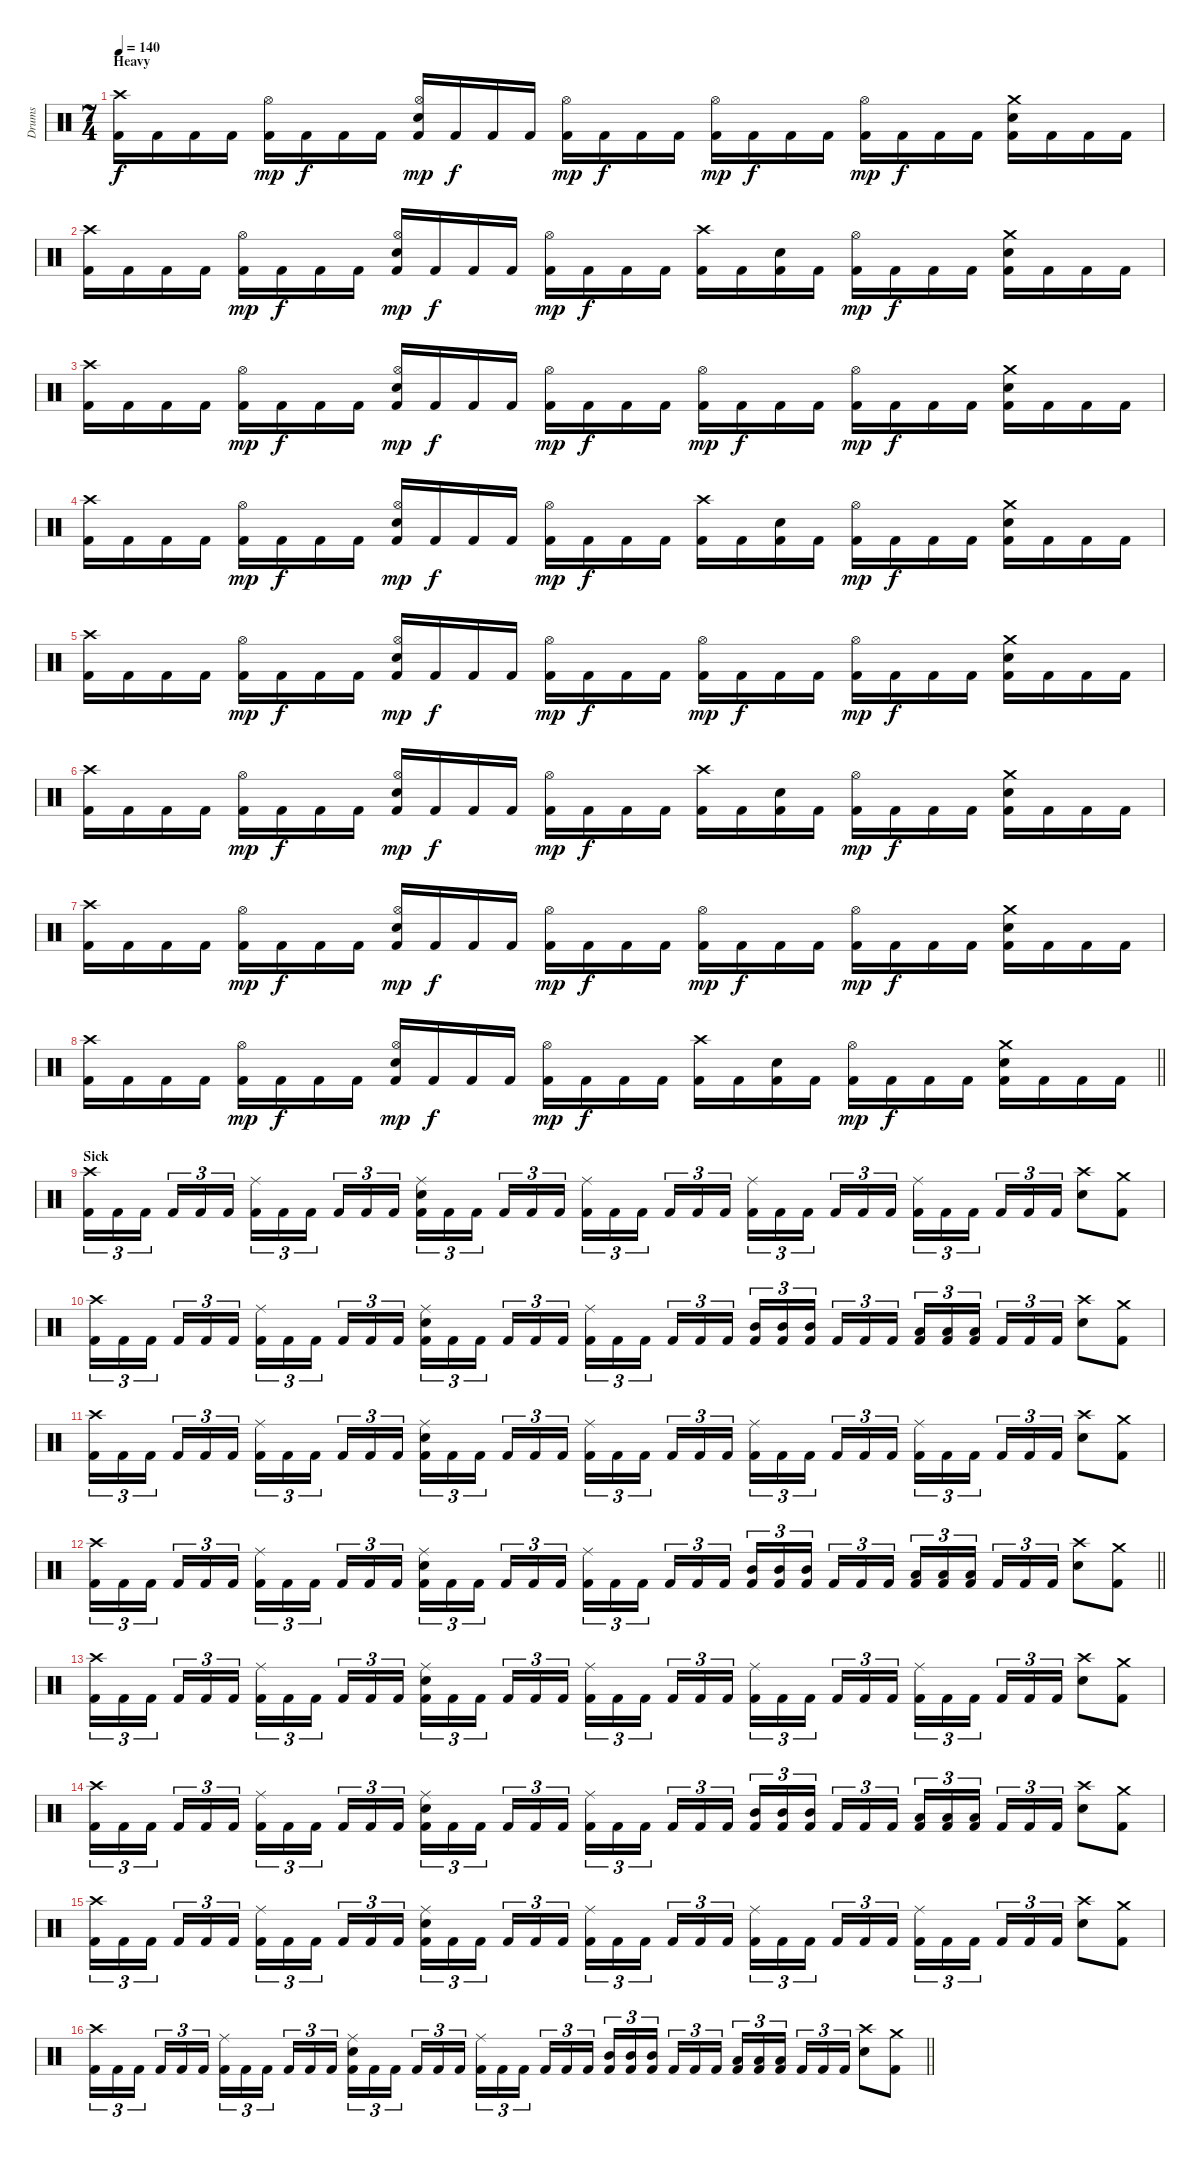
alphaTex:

\track ("Drums" "Drums") {instrument percussion}
\staff {score}
\articulation defaults
\ts (7 4)
\section ("" "Heavy")
\tempo 140
\clef neutral
\ks c
("Crash high (hit)" "Kick (hit) 2").16{dy f} "Kick (hit) 2".16 "Kick (hit) 2".16 "Kick (hit) 2".16 ("Hi-Hat (open)" "Kick (hit) 2").16{dy mp} "Kick (hit) 2".16{dy f} "Kick (hit) 2".16 "Kick (hit) 2".16 ("Hi-Hat (open)" "Snare (hit) 2" "Kick (hit) 2").16{dy mp} "Kick (hit) 2".16{dy f} "Kick (hit) 2".16 "Kick (hit) 2".16 ("Hi-Hat (open)" "Kick (hit) 2").16{dy mp} "Kick (hit) 2".16{dy f} "Kick (hit) 2".16 "Kick (hit) 2".16 ("Hi-Hat (open)" "Kick (hit) 2").16{dy mp} "Kick (hit) 2".16{dy f} "Kick (hit) 2".16 "Kick (hit) 2".16 ("Hi-Hat (open)" "Kick (hit) 2").16{dy mp} "Kick (hit) 2".16{dy f} "Kick (hit) 2".16 "Kick (hit) 2".16 ("Crash medium (hit)" "Snare (hit) 2" "Kick (hit) 2").16 "Kick (hit) 2".16 "Kick (hit) 2".16 "Kick (hit) 2".16 |
("Crash high (hit)" "Kick (hit) 2").16 "Kick (hit) 2".16 "Kick (hit) 2".16 "Kick (hit) 2".16 ("Hi-Hat (open)" "Kick (hit) 2").16{dy mp} "Kick (hit) 2".16{dy f} "Kick (hit) 2".16 "Kick (hit) 2".16 ("Hi-Hat (open)" "Snare (hit) 2" "Kick (hit) 2").16{dy mp} "Kick (hit) 2".16{dy f} "Kick (hit) 2".16 "Kick (hit) 2".16 ("Hi-Hat (open)" "Kick (hit) 2").16{dy mp} "Kick (hit) 2".16{dy f} "Kick (hit) 2".16 "Kick (hit) 2".16 ("Crash high (hit)" "Kick (hit) 2").16 "Kick (hit) 2".16 ("Snare (hit) 2" "Kick (hit) 2").16 "Kick (hit) 2".16 ("Hi-Hat (open)" "Kick (hit) 2").16{dy mp} "Kick (hit) 2".16{dy f} "Kick (hit) 2".16 "Kick (hit) 2".16 ("Crash medium (hit)" "Snare (hit) 2" "Kick (hit) 2").16 "Kick (hit) 2".16 "Kick (hit) 2".16 "Kick (hit) 2".16 |
("Crash high (hit)" "Kick (hit) 2").16 "Kick (hit) 2".16 "Kick (hit) 2".16 "Kick (hit) 2".16 ("Hi-Hat (open)" "Kick (hit) 2").16{dy mp} "Kick (hit) 2".16{dy f} "Kick (hit) 2".16 "Kick (hit) 2".16 ("Hi-Hat (open)" "Snare (hit) 2" "Kick (hit) 2").16{dy mp} "Kick (hit) 2".16{dy f} "Kick (hit) 2".16 "Kick (hit) 2".16 ("Hi-Hat (open)" "Kick (hit) 2").16{dy mp} "Kick (hit) 2".16{dy f} "Kick (hit) 2".16 "Kick (hit) 2".16 ("Hi-Hat (open)" "Kick (hit) 2").16{dy mp} "Kick (hit) 2".16{dy f} "Kick (hit) 2".16 "Kick (hit) 2".16 ("Hi-Hat (open)" "Kick (hit) 2").16{dy mp} "Kick (hit) 2".16{dy f} "Kick (hit) 2".16 "Kick (hit) 2".16 ("Crash medium (hit)" "Snare (hit) 2" "Kick (hit) 2").16 "Kick (hit) 2".16 "Kick (hit) 2".16 "Kick (hit) 2".16 |
("Crash high (hit)" "Kick (hit) 2").16 "Kick (hit) 2".16 "Kick (hit) 2".16 "Kick (hit) 2".16 ("Hi-Hat (open)" "Kick (hit) 2").16{dy mp} "Kick (hit) 2".16{dy f} "Kick (hit) 2".16 "Kick (hit) 2".16 ("Hi-Hat (open)" "Snare (hit) 2" "Kick (hit) 2").16{dy mp} "Kick (hit) 2".16{dy f} "Kick (hit) 2".16 "Kick (hit) 2".16 ("Hi-Hat (open)" "Kick (hit) 2").16{dy mp} "Kick (hit) 2".16{dy f} "Kick (hit) 2".16 "Kick (hit) 2".16 ("Crash high (hit)" "Kick (hit) 2").16 "Kick (hit) 2".16 ("Snare (hit) 2" "Kick (hit) 2").16 "Kick (hit) 2".16 ("Hi-Hat (open)" "Kick (hit) 2").16{dy mp} "Kick (hit) 2".16{dy f} "Kick (hit) 2".16 "Kick (hit) 2".16 ("Crash medium (hit)" "Snare (hit) 2" "Kick (hit) 2").16 "Kick (hit) 2".16 "Kick (hit) 2".16 "Kick (hit) 2".16 |
("Crash high (hit)" "Kick (hit) 2").16 "Kick (hit) 2".16 "Kick (hit) 2".16 "Kick (hit) 2".16 ("Hi-Hat (open)" "Kick (hit) 2").16{dy mp} "Kick (hit) 2".16{dy f} "Kick (hit) 2".16 "Kick (hit) 2".16 ("Hi-Hat (open)" "Snare (hit) 2" "Kick (hit) 2").16{dy mp} "Kick (hit) 2".16{dy f} "Kick (hit) 2".16 "Kick (hit) 2".16 ("Hi-Hat (open)" "Kick (hit) 2").16{dy mp} "Kick (hit) 2".16{dy f} "Kick (hit) 2".16 "Kick (hit) 2".16 ("Hi-Hat (open)" "Kick (hit) 2").16{dy mp} "Kick (hit) 2".16{dy f} "Kick (hit) 2".16 "Kick (hit) 2".16 ("Hi-Hat (open)" "Kick (hit) 2").16{dy mp} "Kick (hit) 2".16{dy f} "Kick (hit) 2".16 "Kick (hit) 2".16 ("Crash medium (hit)" "Snare (hit) 2" "Kick (hit) 2").16 "Kick (hit) 2".16 "Kick (hit) 2".16 "Kick (hit) 2".16 |
("Crash high (hit)" "Kick (hit) 2").16 "Kick (hit) 2".16 "Kick (hit) 2".16 "Kick (hit) 2".16 ("Hi-Hat (open)" "Kick (hit) 2").16{dy mp} "Kick (hit) 2".16{dy f} "Kick (hit) 2".16 "Kick (hit) 2".16 ("Hi-Hat (open)" "Snare (hit) 2" "Kick (hit) 2").16{dy mp} "Kick (hit) 2".16{dy f} "Kick (hit) 2".16 "Kick (hit) 2".16 ("Hi-Hat (open)" "Kick (hit) 2").16{dy mp} "Kick (hit) 2".16{dy f} "Kick (hit) 2".16 "Kick (hit) 2".16 ("Crash high (hit)" "Kick (hit) 2").16 "Kick (hit) 2".16 ("Snare (hit) 2" "Kick (hit) 2").16 "Kick (hit) 2".16 ("Hi-Hat (open)" "Kick (hit) 2").16{dy mp} "Kick (hit) 2".16{dy f} "Kick (hit) 2".16 "Kick (hit) 2".16 ("Crash medium (hit)" "Snare (hit) 2" "Kick (hit) 2").16 "Kick (hit) 2".16 "Kick (hit) 2".16 "Kick (hit) 2".16 |
("Crash high (hit)" "Kick (hit) 2").16 "Kick (hit) 2".16 "Kick (hit) 2".16 "Kick (hit) 2".16 ("Hi-Hat (open)" "Kick (hit) 2").16{dy mp} "Kick (hit) 2".16{dy f} "Kick (hit) 2".16 "Kick (hit) 2".16 ("Hi-Hat (open)" "Snare (hit) 2" "Kick (hit) 2").16{dy mp} "Kick (hit) 2".16{dy f} "Kick (hit) 2".16 "Kick (hit) 2".16 ("Hi-Hat (open)" "Kick (hit) 2").16{dy mp} "Kick (hit) 2".16{dy f} "Kick (hit) 2".16 "Kick (hit) 2".16 ("Hi-Hat (open)" "Kick (hit) 2").16{dy mp} "Kick (hit) 2".16{dy f} "Kick (hit) 2".16 "Kick (hit) 2".16 ("Hi-Hat (open)" "Kick (hit) 2").16{dy mp} "Kick (hit) 2".16{dy f} "Kick (hit) 2".16 "Kick (hit) 2".16 ("Crash medium (hit)" "Snare (hit) 2" "Kick (hit) 2").16 "Kick (hit) 2".16 "Kick (hit) 2".16 "Kick (hit) 2".16 |
\barLineRight lightlight
("Crash high (hit)" "Kick (hit) 2").16 "Kick (hit) 2".16 "Kick (hit) 2".16 "Kick (hit) 2".16 ("Hi-Hat (open)" "Kick (hit) 2").16{dy mp} "Kick (hit) 2".16{dy f} "Kick (hit) 2".16 "Kick (hit) 2".16 ("Hi-Hat (open)" "Snare (hit) 2" "Kick (hit) 2").16{dy mp} "Kick (hit) 2".16{dy f} "Kick (hit) 2".16 "Kick (hit) 2".16 ("Hi-Hat (open)" "Kick (hit) 2").16{dy mp} "Kick (hit) 2".16{dy f} "Kick (hit) 2".16 "Kick (hit) 2".16 ("Crash high (hit)" "Kick (hit) 2").16 "Kick (hit) 2".16 ("Snare (hit) 2" "Kick (hit) 2").16 "Kick (hit) 2".16 ("Hi-Hat (open)" "Kick (hit) 2").16{dy mp} "Kick (hit) 2".16{dy f} "Kick (hit) 2".16 "Kick (hit) 2".16 ("Crash medium (hit)" "Snare (hit) 2" "Kick (hit) 2").16 "Kick (hit) 2".16 "Kick (hit) 2".16 "Kick (hit) 2".16 |
\section ("" "Sick")
("Crash high (hit)" "Kick (hit) 2").16{tu (3 2)} "Kick (hit) 2".16{tu (3 2)} "Kick (hit) 2".16{tu (3 2) beam splitsecondary} "Kick (hit) 2".16{tu (3 2)} "Kick (hit) 2".16{tu (3 2)} "Kick (hit) 2".16{tu (3 2)} ("Ride (middle)" "Kick (hit) 2").16{tu (3 2)} "Kick (hit) 2".16{tu (3 2)} "Kick (hit) 2".16{tu (3 2) beam splitsecondary} "Kick (hit) 2".16{tu (3 2)} "Kick (hit) 2".16{tu (3 2)} "Kick (hit) 2".16{tu (3 2)} ("Ride (middle)" "Snare (hit) 2" "Kick (hit) 2").16{tu (3 2)} "Kick (hit) 2".16{tu (3 2)} "Kick (hit) 2".16{tu (3 2) beam splitsecondary} "Kick (hit) 2".16{tu (3 2)} "Kick (hit) 2".16{tu (3 2)} "Kick (hit) 2".16{tu (3 2)} ("Ride (middle)" "Kick (hit) 2").16{tu (3 2)} "Kick (hit) 2".16{tu (3 2)} "Kick (hit) 2".16{tu (3 2) beam splitsecondary} "Kick (hit) 2".16{tu (3 2)} "Kick (hit) 2".16{tu (3 2)} "Kick (hit) 2".16{tu (3 2)} ("Ride (middle)" "Kick (hit) 2").16{tu (3 2)} "Kick (hit) 2".16{tu (3 2)} "Kick (hit) 2".16{tu (3 2) beam splitsecondary} "Kick (hit) 2".16{tu (3 2)} "Kick (hit) 2".16{tu (3 2)} "Kick (hit) 2".16{tu (3 2)} ("Ride (middle)" "Kick (hit) 2").16{tu (3 2)} "Kick (hit) 2".16{tu (3 2)} "Kick (hit) 2".16{tu (3 2) beam splitsecondary} "Kick (hit) 2".16{tu (3 2)} "Kick (hit) 2".16{tu (3 2)} "Kick (hit) 2".16{tu (3 2)} ("Crash high (hit)" "Snare (hit) 2").8 ("Crash medium (hit)" "Kick (hit) 2").8 |
("Crash high (hit)" "Kick (hit) 2").16{tu (3 2)} "Kick (hit) 2".16{tu (3 2)} "Kick (hit) 2".16{tu (3 2) beam splitsecondary} "Kick (hit) 2".16{tu (3 2)} "Kick (hit) 2".16{tu (3 2)} "Kick (hit) 2".16{tu (3 2)} ("Ride (middle)" "Kick (hit) 2").16{tu (3 2)} "Kick (hit) 2".16{tu (3 2)} "Kick (hit) 2".16{tu (3 2) beam splitsecondary} "Kick (hit) 2".16{tu (3 2)} "Kick (hit) 2".16{tu (3 2)} "Kick (hit) 2".16{tu (3 2)} ("Ride (middle)" "Snare (hit) 2" "Kick (hit) 2").16{tu (3 2)} "Kick (hit) 2".16{tu (3 2)} "Kick (hit) 2".16{tu (3 2) beam splitsecondary} "Kick (hit) 2".16{tu (3 2)} "Kick (hit) 2".16{tu (3 2)} "Kick (hit) 2".16{tu (3 2)} ("Ride (middle)" "Kick (hit) 2").16{tu (3 2)} "Kick (hit) 2".16{tu (3 2)} "Kick (hit) 2".16{tu (3 2) beam splitsecondary} "Kick (hit) 2".16{tu (3 2)} "Kick (hit) 2".16{tu (3 2)} "Kick (hit) 2".16{tu (3 2)} ("Mid Tom (hit)" "Kick (hit) 2").16{tu (3 2)} ("Mid Tom (hit)" "Kick (hit) 2").16{tu (3 2)} ("Mid Tom (hit)" "Kick (hit) 2").16{tu (3 2) beam splitsecondary} "Kick (hit) 2".16{tu (3 2)} "Kick (hit) 2".16{tu (3 2)} "Kick (hit) 2".16{tu (3 2)} ("Low Tom (hit)" "Kick (hit) 2").16{tu (3 2)} ("Low Tom (hit)" "Kick (hit) 2").16{tu (3 2)} ("Low Tom (hit)" "Kick (hit) 2").16{tu (3 2) beam splitsecondary} "Kick (hit) 2".16{tu (3 2)} "Kick (hit) 2".16{tu (3 2)} "Kick (hit) 2".16{tu (3 2)} ("Crash high (hit)" "Snare (hit) 2").8 ("Crash medium (hit)" "Kick (hit) 2").8 |
("Crash high (hit)" "Kick (hit) 2").16{tu (3 2)} "Kick (hit) 2".16{tu (3 2)} "Kick (hit) 2".16{tu (3 2) beam splitsecondary} "Kick (hit) 2".16{tu (3 2)} "Kick (hit) 2".16{tu (3 2)} "Kick (hit) 2".16{tu (3 2)} ("Ride (middle)" "Kick (hit) 2").16{tu (3 2)} "Kick (hit) 2".16{tu (3 2)} "Kick (hit) 2".16{tu (3 2) beam splitsecondary} "Kick (hit) 2".16{tu (3 2)} "Kick (hit) 2".16{tu (3 2)} "Kick (hit) 2".16{tu (3 2)} ("Ride (middle)" "Snare (hit) 2" "Kick (hit) 2").16{tu (3 2)} "Kick (hit) 2".16{tu (3 2)} "Kick (hit) 2".16{tu (3 2) beam splitsecondary} "Kick (hit) 2".16{tu (3 2)} "Kick (hit) 2".16{tu (3 2)} "Kick (hit) 2".16{tu (3 2)} ("Ride (middle)" "Kick (hit) 2").16{tu (3 2)} "Kick (hit) 2".16{tu (3 2)} "Kick (hit) 2".16{tu (3 2) beam splitsecondary} "Kick (hit) 2".16{tu (3 2)} "Kick (hit) 2".16{tu (3 2)} "Kick (hit) 2".16{tu (3 2)} ("Ride (middle)" "Kick (hit) 2").16{tu (3 2)} "Kick (hit) 2".16{tu (3 2)} "Kick (hit) 2".16{tu (3 2) beam splitsecondary} "Kick (hit) 2".16{tu (3 2)} "Kick (hit) 2".16{tu (3 2)} "Kick (hit) 2".16{tu (3 2)} ("Ride (middle)" "Kick (hit) 2").16{tu (3 2)} "Kick (hit) 2".16{tu (3 2)} "Kick (hit) 2".16{tu (3 2) beam splitsecondary} "Kick (hit) 2".16{tu (3 2)} "Kick (hit) 2".16{tu (3 2)} "Kick (hit) 2".16{tu (3 2)} ("Crash high (hit)" "Snare (hit) 2").8 ("Crash medium (hit)" "Kick (hit) 2").8 |
\barLineRight lightlight
("Crash high (hit)" "Kick (hit) 2").16{tu (3 2)} "Kick (hit) 2".16{tu (3 2)} "Kick (hit) 2".16{tu (3 2) beam splitsecondary} "Kick (hit) 2".16{tu (3 2)} "Kick (hit) 2".16{tu (3 2)} "Kick (hit) 2".16{tu (3 2)} ("Ride (middle)" "Kick (hit) 2").16{tu (3 2)} "Kick (hit) 2".16{tu (3 2)} "Kick (hit) 2".16{tu (3 2) beam splitsecondary} "Kick (hit) 2".16{tu (3 2)} "Kick (hit) 2".16{tu (3 2)} "Kick (hit) 2".16{tu (3 2)} ("Ride (middle)" "Snare (hit) 2" "Kick (hit) 2").16{tu (3 2)} "Kick (hit) 2".16{tu (3 2)} "Kick (hit) 2".16{tu (3 2) beam splitsecondary} "Kick (hit) 2".16{tu (3 2)} "Kick (hit) 2".16{tu (3 2)} "Kick (hit) 2".16{tu (3 2)} ("Ride (middle)" "Kick (hit) 2").16{tu (3 2)} "Kick (hit) 2".16{tu (3 2)} "Kick (hit) 2".16{tu (3 2) beam splitsecondary} "Kick (hit) 2".16{tu (3 2)} "Kick (hit) 2".16{tu (3 2)} "Kick (hit) 2".16{tu (3 2)} ("Mid Tom (hit)" "Kick (hit) 2").16{tu (3 2)} ("Mid Tom (hit)" "Kick (hit) 2").16{tu (3 2)} ("Mid Tom (hit)" "Kick (hit) 2").16{tu (3 2) beam splitsecondary} "Kick (hit) 2".16{tu (3 2)} "Kick (hit) 2".16{tu (3 2)} "Kick (hit) 2".16{tu (3 2)} ("Low Tom (hit)" "Kick (hit) 2").16{tu (3 2)} ("Low Tom (hit)" "Kick (hit) 2").16{tu (3 2)} ("Low Tom (hit)" "Kick (hit) 2").16{tu (3 2) beam splitsecondary} "Kick (hit) 2".16{tu (3 2)} "Kick (hit) 2".16{tu (3 2)} "Kick (hit) 2".16{tu (3 2)} ("Crash high (hit)" "Snare (hit) 2").8 ("Crash medium (hit)" "Kick (hit) 2").8 |
("Crash high (hit)" "Kick (hit) 2").16{tu (3 2)} "Kick (hit) 2".16{tu (3 2)} "Kick (hit) 2".16{tu (3 2) beam splitsecondary} "Kick (hit) 2".16{tu (3 2)} "Kick (hit) 2".16{tu (3 2)} "Kick (hit) 2".16{tu (3 2)} ("Ride (middle)" "Kick (hit) 2").16{tu (3 2)} "Kick (hit) 2".16{tu (3 2)} "Kick (hit) 2".16{tu (3 2) beam splitsecondary} "Kick (hit) 2".16{tu (3 2)} "Kick (hit) 2".16{tu (3 2)} "Kick (hit) 2".16{tu (3 2)} ("Ride (middle)" "Snare (hit) 2" "Kick (hit) 2").16{tu (3 2)} "Kick (hit) 2".16{tu (3 2)} "Kick (hit) 2".16{tu (3 2) beam splitsecondary} "Kick (hit) 2".16{tu (3 2)} "Kick (hit) 2".16{tu (3 2)} "Kick (hit) 2".16{tu (3 2)} ("Ride (middle)" "Kick (hit) 2").16{tu (3 2)} "Kick (hit) 2".16{tu (3 2)} "Kick (hit) 2".16{tu (3 2) beam splitsecondary} "Kick (hit) 2".16{tu (3 2)} "Kick (hit) 2".16{tu (3 2)} "Kick (hit) 2".16{tu (3 2)} ("Ride (middle)" "Kick (hit) 2").16{tu (3 2)} "Kick (hit) 2".16{tu (3 2)} "Kick (hit) 2".16{tu (3 2) beam splitsecondary} "Kick (hit) 2".16{tu (3 2)} "Kick (hit) 2".16{tu (3 2)} "Kick (hit) 2".16{tu (3 2)} ("Ride (middle)" "Kick (hit) 2").16{tu (3 2)} "Kick (hit) 2".16{tu (3 2)} "Kick (hit) 2".16{tu (3 2) beam splitsecondary} "Kick (hit) 2".16{tu (3 2)} "Kick (hit) 2".16{tu (3 2)} "Kick (hit) 2".16{tu (3 2)} ("Crash high (hit)" "Snare (hit) 2").8 ("Crash medium (hit)" "Kick (hit) 2").8 |
("Crash high (hit)" "Kick (hit) 2").16{tu (3 2)} "Kick (hit) 2".16{tu (3 2)} "Kick (hit) 2".16{tu (3 2) beam splitsecondary} "Kick (hit) 2".16{tu (3 2)} "Kick (hit) 2".16{tu (3 2)} "Kick (hit) 2".16{tu (3 2)} ("Ride (middle)" "Kick (hit) 2").16{tu (3 2)} "Kick (hit) 2".16{tu (3 2)} "Kick (hit) 2".16{tu (3 2) beam splitsecondary} "Kick (hit) 2".16{tu (3 2)} "Kick (hit) 2".16{tu (3 2)} "Kick (hit) 2".16{tu (3 2)} ("Ride (middle)" "Snare (hit) 2" "Kick (hit) 2").16{tu (3 2)} "Kick (hit) 2".16{tu (3 2)} "Kick (hit) 2".16{tu (3 2) beam splitsecondary} "Kick (hit) 2".16{tu (3 2)} "Kick (hit) 2".16{tu (3 2)} "Kick (hit) 2".16{tu (3 2)} ("Ride (middle)" "Kick (hit) 2").16{tu (3 2)} "Kick (hit) 2".16{tu (3 2)} "Kick (hit) 2".16{tu (3 2) beam splitsecondary} "Kick (hit) 2".16{tu (3 2)} "Kick (hit) 2".16{tu (3 2)} "Kick (hit) 2".16{tu (3 2)} ("Mid Tom (hit)" "Kick (hit) 2").16{tu (3 2)} ("Mid Tom (hit)" "Kick (hit) 2").16{tu (3 2)} ("Mid Tom (hit)" "Kick (hit) 2").16{tu (3 2) beam splitsecondary} "Kick (hit) 2".16{tu (3 2)} "Kick (hit) 2".16{tu (3 2)} "Kick (hit) 2".16{tu (3 2)} ("Low Tom (hit)" "Kick (hit) 2").16{tu (3 2)} ("Low Tom (hit)" "Kick (hit) 2").16{tu (3 2)} ("Low Tom (hit)" "Kick (hit) 2").16{tu (3 2) beam splitsecondary} "Kick (hit) 2".16{tu (3 2)} "Kick (hit) 2".16{tu (3 2)} "Kick (hit) 2".16{tu (3 2)} ("Crash high (hit)" "Snare (hit) 2").8 ("Crash medium (hit)" "Kick (hit) 2").8 |
("Crash high (hit)" "Kick (hit) 2").16{tu (3 2)} "Kick (hit) 2".16{tu (3 2)} "Kick (hit) 2".16{tu (3 2) beam splitsecondary} "Kick (hit) 2".16{tu (3 2)} "Kick (hit) 2".16{tu (3 2)} "Kick (hit) 2".16{tu (3 2)} ("Ride (middle)" "Kick (hit) 2").16{tu (3 2)} "Kick (hit) 2".16{tu (3 2)} "Kick (hit) 2".16{tu (3 2) beam splitsecondary} "Kick (hit) 2".16{tu (3 2)} "Kick (hit) 2".16{tu (3 2)} "Kick (hit) 2".16{tu (3 2)} ("Ride (middle)" "Snare (hit) 2" "Kick (hit) 2").16{tu (3 2)} "Kick (hit) 2".16{tu (3 2)} "Kick (hit) 2".16{tu (3 2) beam splitsecondary} "Kick (hit) 2".16{tu (3 2)} "Kick (hit) 2".16{tu (3 2)} "Kick (hit) 2".16{tu (3 2)} ("Ride (middle)" "Kick (hit) 2").16{tu (3 2)} "Kick (hit) 2".16{tu (3 2)} "Kick (hit) 2".16{tu (3 2) beam splitsecondary} "Kick (hit) 2".16{tu (3 2)} "Kick (hit) 2".16{tu (3 2)} "Kick (hit) 2".16{tu (3 2)} ("Ride (middle)" "Kick (hit) 2").16{tu (3 2)} "Kick (hit) 2".16{tu (3 2)} "Kick (hit) 2".16{tu (3 2) beam splitsecondary} "Kick (hit) 2".16{tu (3 2)} "Kick (hit) 2".16{tu (3 2)} "Kick (hit) 2".16{tu (3 2)} ("Ride (middle)" "Kick (hit) 2").16{tu (3 2)} "Kick (hit) 2".16{tu (3 2)} "Kick (hit) 2".16{tu (3 2) beam splitsecondary} "Kick (hit) 2".16{tu (3 2)} "Kick (hit) 2".16{tu (3 2)} "Kick (hit) 2".16{tu (3 2)} ("Crash high (hit)" "Snare (hit) 2").8 ("Crash medium (hit)" "Kick (hit) 2").8 |
\barLineRight lightlight
("Crash high (hit)" "Kick (hit) 2").16{tu (3 2)} "Kick (hit) 2".16{tu (3 2)} "Kick (hit) 2".16{tu (3 2) beam splitsecondary} "Kick (hit) 2".16{tu (3 2)} "Kick (hit) 2".16{tu (3 2)} "Kick (hit) 2".16{tu (3 2)} ("Ride (middle)" "Kick (hit) 2").16{tu (3 2)} "Kick (hit) 2".16{tu (3 2)} "Kick (hit) 2".16{tu (3 2) beam splitsecondary} "Kick (hit) 2".16{tu (3 2)} "Kick (hit) 2".16{tu (3 2)} "Kick (hit) 2".16{tu (3 2)} ("Ride (middle)" "Snare (hit) 2" "Kick (hit) 2").16{tu (3 2)} "Kick (hit) 2".16{tu (3 2)} "Kick (hit) 2".16{tu (3 2) beam splitsecondary} "Kick (hit) 2".16{tu (3 2)} "Kick (hit) 2".16{tu (3 2)} "Kick (hit) 2".16{tu (3 2)} ("Ride (middle)" "Kick (hit) 2").16{tu (3 2)} "Kick (hit) 2".16{tu (3 2)} "Kick (hit) 2".16{tu (3 2) beam splitsecondary} "Kick (hit) 2".16{tu (3 2)} "Kick (hit) 2".16{tu (3 2)} "Kick (hit) 2".16{tu (3 2)} ("Mid Tom (hit)" "Kick (hit) 2").16{tu (3 2)} ("Mid Tom (hit)" "Kick (hit) 2").16{tu (3 2)} ("Mid Tom (hit)" "Kick (hit) 2").16{tu (3 2) beam splitsecondary} "Kick (hit) 2".16{tu (3 2)} "Kick (hit) 2".16{tu (3 2)} "Kick (hit) 2".16{tu (3 2)} ("Low Tom (hit)" "Kick (hit) 2").16{tu (3 2)} ("Low Tom (hit)" "Kick (hit) 2").16{tu (3 2)} ("Low Tom (hit)" "Kick (hit) 2").16{tu (3 2) beam splitsecondary} "Kick (hit) 2".16{tu (3 2)} "Kick (hit) 2".16{tu (3 2)} "Kick (hit) 2".16{tu (3 2)} ("Crash high (hit)" "Snare (hit) 2").8 ("Crash medium (hit)" "Kick (hit) 2").8
